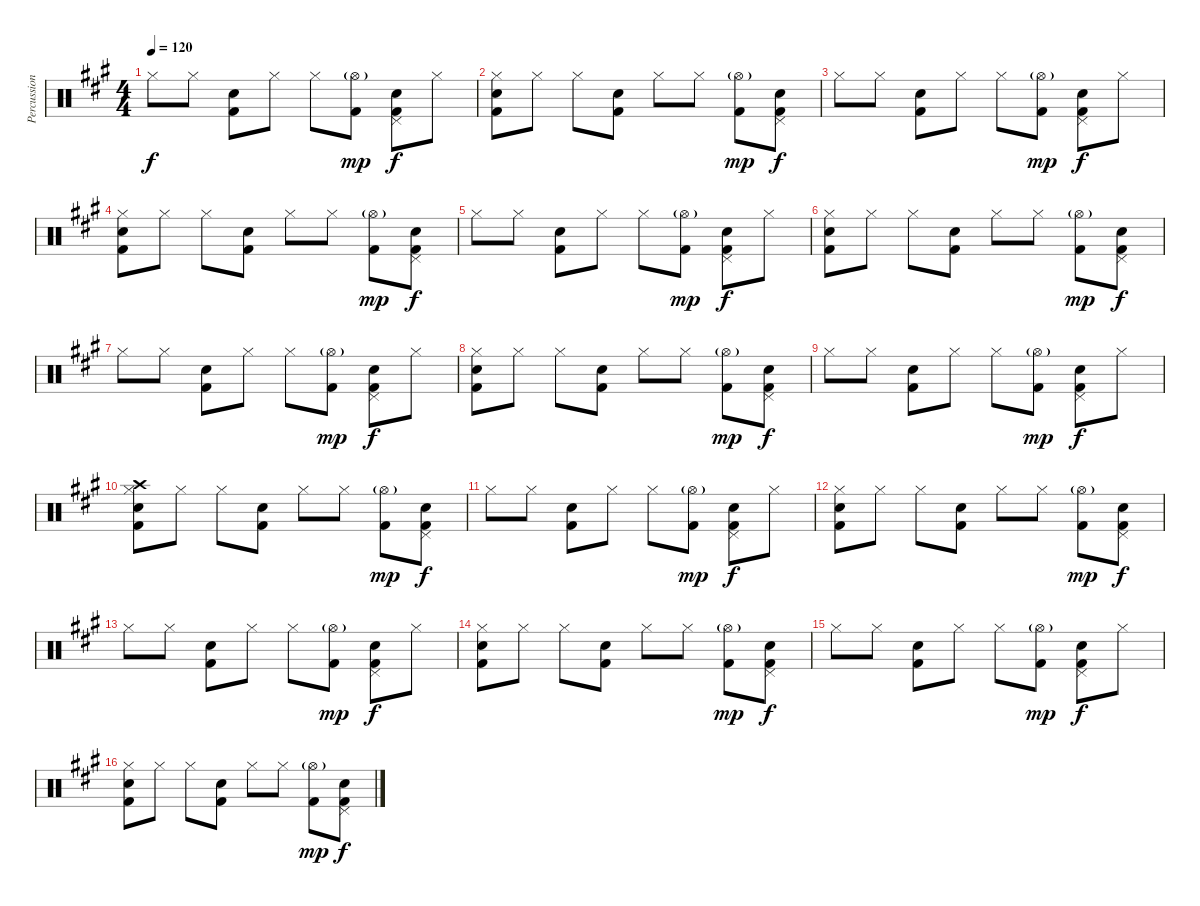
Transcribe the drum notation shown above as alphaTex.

\track ("Percussion" "Percussion") {instrument percussion}
\staff {score}
\articulation defaults
\ts (4 4)
\tempo 120
\clef neutral
\ks a "Hi-Hat (closed)".8{dy f} "Hi-Hat (closed)".8
("Snare (hit) 2" "Kick (hit) 2").8 "Hi-Hat (closed)".8 "Hi-Hat (closed)".8 ("Hi-Hat (open)"{g} "Kick (hit) 2").8{dy mp} ("Pedal Hi-Hat (hit)" "Snare (hit) 2" "Kick (hit) 2").8{dy f} "Hi-Hat (closed)".8 |
("Hi-Hat (closed)" "Snare (hit) 2" "Kick (hit) 2").8 "Hi-Hat (closed)".8 "Hi-Hat (closed)".8 ("Snare (hit) 2" "Kick (hit) 2").8 "Hi-Hat (closed)".8 "Hi-Hat (closed)".8 ("Hi-Hat (open)"{g} "Kick (hit) 2").8{dy mp} ("Pedal Hi-Hat (hit)" "Snare (hit) 2" "Kick (hit) 2").8{dy f} |
"Hi-Hat (closed)".8 "Hi-Hat (closed)".8 ("Snare (hit) 2" "Kick (hit) 2").8 "Hi-Hat (closed)".8 "Hi-Hat (closed)".8 ("Hi-Hat (open)"{g} "Kick (hit) 2").8{dy mp} ("Pedal Hi-Hat (hit)" "Snare (hit) 2" "Kick (hit) 2").8{dy f} "Hi-Hat (closed)".8 |
("Hi-Hat (closed)" "Snare (hit) 2" "Kick (hit) 2").8 "Hi-Hat (closed)".8 "Hi-Hat (closed)".8 ("Snare (hit) 2" "Kick (hit) 2").8 "Hi-Hat (closed)".8 "Hi-Hat (closed)".8 ("Hi-Hat (open)"{g} "Kick (hit) 2").8{dy mp} ("Pedal Hi-Hat (hit)" "Snare (hit) 2" "Kick (hit) 2").8{dy f} |
"Hi-Hat (closed)".8 "Hi-Hat (closed)".8 ("Snare (hit) 2" "Kick (hit) 2").8 "Hi-Hat (closed)".8 "Hi-Hat (closed)".8 ("Hi-Hat (open)"{g} "Kick (hit) 2").8{dy mp} ("Pedal Hi-Hat (hit)" "Snare (hit) 2" "Kick (hit) 2").8{dy f} "Hi-Hat (closed)".8 |
("Hi-Hat (closed)" "Snare (hit) 2" "Kick (hit) 2").8 "Hi-Hat (closed)".8 "Hi-Hat (closed)".8 ("Snare (hit) 2" "Kick (hit) 2").8 "Hi-Hat (closed)".8 "Hi-Hat (closed)".8 ("Hi-Hat (open)"{g} "Kick (hit) 2").8{dy mp} ("Pedal Hi-Hat (hit)" "Snare (hit) 2" "Kick (hit) 2").8{dy f} |
"Hi-Hat (closed)".8 "Hi-Hat (closed)".8 ("Snare (hit) 2" "Kick (hit) 2").8 "Hi-Hat (closed)".8 "Hi-Hat (closed)".8 ("Hi-Hat (open)"{g} "Kick (hit) 2").8{dy mp} ("Pedal Hi-Hat (hit)" "Snare (hit) 2" "Kick (hit) 2").8{dy f} "Hi-Hat (closed)".8 |
("Hi-Hat (closed)" "Snare (hit) 2" "Kick (hit) 2").8 "Hi-Hat (closed)".8 "Hi-Hat (closed)".8 ("Snare (hit) 2" "Kick (hit) 2").8 "Hi-Hat (closed)".8 "Hi-Hat (closed)".8 ("Hi-Hat (open)"{g} "Kick (hit) 2").8{dy mp} ("Pedal Hi-Hat (hit)" "Snare (hit) 2" "Kick (hit) 2").8{dy f} |
"Hi-Hat (closed)".8 "Hi-Hat (closed)".8 ("Snare (hit) 2" "Kick (hit) 2").8 "Hi-Hat (closed)".8 "Hi-Hat (closed)".8 ("Hi-Hat (open)"{g} "Kick (hit) 2").8{dy mp} ("Pedal Hi-Hat (hit)" "Snare (hit) 2" "Kick (hit) 2").8{dy f} "Hi-Hat (closed)".8 |
("Crash high (hit)" "Hi-Hat (closed)" "Snare (hit) 2" "Kick (hit) 2").8 "Hi-Hat (closed)".8 "Hi-Hat (closed)".8 ("Snare (hit) 2" "Kick (hit) 2").8 "Hi-Hat (closed)".8 "Hi-Hat (closed)".8 ("Hi-Hat (open)"{g} "Kick (hit) 2").8{dy mp} ("Pedal Hi-Hat (hit)" "Snare (hit) 2" "Kick (hit) 2").8{dy f} |
"Hi-Hat (closed)".8 "Hi-Hat (closed)".8 ("Snare (hit) 2" "Kick (hit) 2").8 "Hi-Hat (closed)".8 "Hi-Hat (closed)".8 ("Hi-Hat (open)"{g} "Kick (hit) 2").8{dy mp} ("Pedal Hi-Hat (hit)" "Snare (hit) 2" "Kick (hit) 2").8{dy f} "Hi-Hat (closed)".8 |
("Hi-Hat (closed)" "Snare (hit) 2" "Kick (hit) 2").8 "Hi-Hat (closed)".8 "Hi-Hat (closed)".8 ("Snare (hit) 2" "Kick (hit) 2").8 "Hi-Hat (closed)".8 "Hi-Hat (closed)".8 ("Hi-Hat (open)"{g} "Kick (hit) 2").8{dy mp} ("Pedal Hi-Hat (hit)" "Snare (hit) 2" "Kick (hit) 2").8{dy f} |
"Hi-Hat (closed)".8 "Hi-Hat (closed)".8 ("Snare (hit) 2" "Kick (hit) 2").8 "Hi-Hat (closed)".8 "Hi-Hat (closed)".8 ("Hi-Hat (open)"{g} "Kick (hit) 2").8{dy mp} ("Pedal Hi-Hat (hit)" "Snare (hit) 2" "Kick (hit) 2").8{dy f} "Hi-Hat (closed)".8 |
("Hi-Hat (closed)" "Snare (hit) 2" "Kick (hit) 2").8 "Hi-Hat (closed)".8 "Hi-Hat (closed)".8 ("Snare (hit) 2" "Kick (hit) 2").8 "Hi-Hat (closed)".8 "Hi-Hat (closed)".8 ("Hi-Hat (open)"{g} "Kick (hit) 2").8{dy mp} ("Pedal Hi-Hat (hit)" "Snare (hit) 2" "Kick (hit) 2").8{dy f} |
"Hi-Hat (closed)".8 "Hi-Hat (closed)".8 ("Snare (hit) 2" "Kick (hit) 2").8 "Hi-Hat (closed)".8 "Hi-Hat (closed)".8 ("Hi-Hat (open)"{g} "Kick (hit) 2").8{dy mp} ("Pedal Hi-Hat (hit)" "Snare (hit) 2" "Kick (hit) 2").8{dy f} "Hi-Hat (closed)".8 |
("Hi-Hat (closed)" "Snare (hit) 2" "Kick (hit) 2").8 "Hi-Hat (closed)".8 "Hi-Hat (closed)".8 ("Snare (hit) 2" "Kick (hit) 2").8 "Hi-Hat (closed)".8 "Hi-Hat (closed)".8 ("Hi-Hat (open)"{g} "Kick (hit) 2").8{dy mp} ("Pedal Hi-Hat (hit)" "Snare (hit) 2" "Kick (hit) 2").8{dy f}
